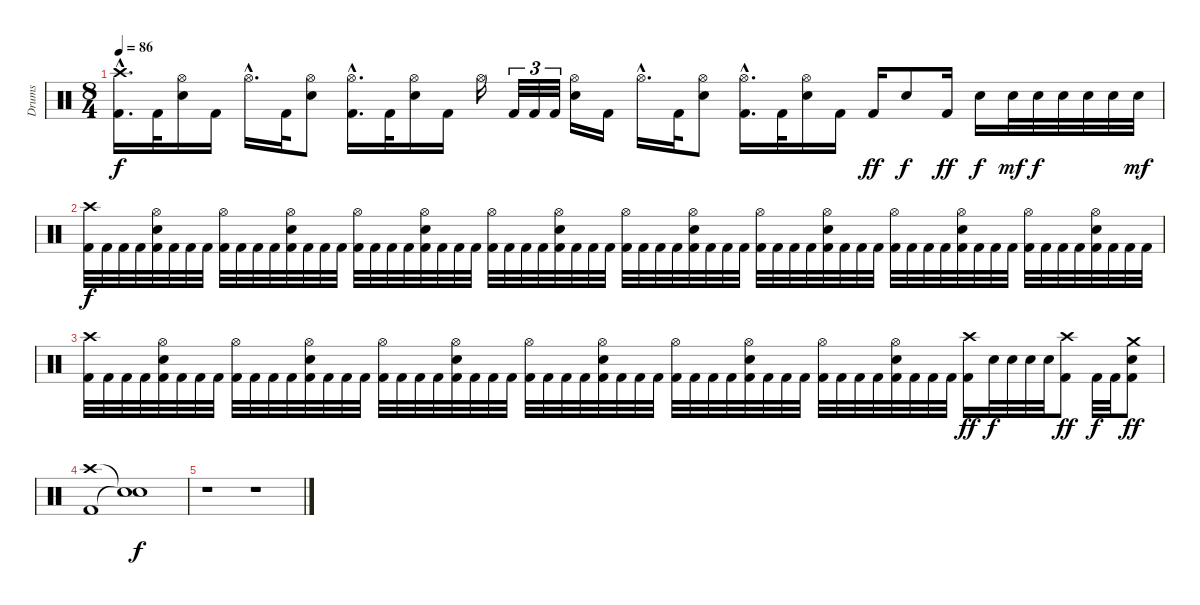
\track ("Drums" "Drums") {instrument percussion}
\staff {score}
\articulation defaults
\ts (8 4)
\tempo 86
\clef neutral
\ks c
("Crash high (hit)"{hac} "Kick (hit) 2"{hac}).16{d dy f} "Kick (hit) 2".32 ("Hi-Hat (open)" "Electric Snare (hit)").16 "Kick (hit) 2".16 "Hi-Hat (open)"{hac}.16{d} "Kick (hit) 2".32 ("Hi-Hat (open)" "Electric Snare (hit)").8 ("Hi-Hat (open)"{hac} "Kick (hit) 2"{hac}).16{d} "Kick (hit) 2".32 ("Hi-Hat (open)" "Electric Snare (hit)").16 "Kick (hit) 2".16 "Hi-Hat (open)".16 "Kick (hit) 2".32{tu (3 2)} "Kick (hit) 2".32{tu (3 2)} "Kick (hit) 2".32{tu (3 2)} ("Hi-Hat (open)" "Electric Snare (hit)").16 "Kick (hit) 2".16 "Hi-Hat (open)"{hac}.16{d} "Kick (hit) 2".32 ("Hi-Hat (open)" "Electric Snare (hit)").8 ("Hi-Hat (open)"{hac} "Kick (hit) 2"{hac}).16{d} "Kick (hit) 2".32 ("Hi-Hat (open)" "Electric Snare (hit)").16 "Kick (hit) 2".16 "Kick (hit) 2".16{dy ff} "Electric Snare (hit)".8{dy f} "Kick (hit) 2".16{dy ff} "Electric Snare (hit)".16{dy f} "Electric Snare (hit)".32{dy mf} "Electric Snare (hit)".32{dy f} "Electric Snare (hit)".32 "Electric Snare (hit)".32 "Electric Snare (hit)".32 "Electric Snare (hit)".32{dy mf} |
("Crash high (hit)" "Kick (hit) 2").32{dy f} "Kick (hit) 2".32 "Kick (hit) 2".32 "Kick (hit) 2".32 ("Hi-Hat (open)" "Electric Snare (hit)" "Kick (hit) 2").32 "Kick (hit) 2".32 "Kick (hit) 2".32 "Kick (hit) 2".32 ("Hi-Hat (open)" "Kick (hit) 2").32 "Kick (hit) 2".32 "Kick (hit) 2".32 "Kick (hit) 2".32 ("Hi-Hat (open)" "Electric Snare (hit)" "Kick (hit) 2").32 "Kick (hit) 2".32 "Kick (hit) 2".32 "Kick (hit) 2".32 ("Hi-Hat (open)" "Kick (hit) 2").32 "Kick (hit) 2".32 "Kick (hit) 2".32 "Kick (hit) 2".32 ("Hi-Hat (open)" "Electric Snare (hit)" "Kick (hit) 2").32 "Kick (hit) 2".32 "Kick (hit) 2".32 "Kick (hit) 2".32 ("Hi-Hat (open)" "Kick (hit) 2").32 "Kick (hit) 2".32 "Kick (hit) 2".32 "Kick (hit) 2".32 ("Hi-Hat (open)" "Electric Snare (hit)" "Kick (hit) 2").32 "Kick (hit) 2".32 "Kick (hit) 2".32 "Kick (hit) 2".32 ("Hi-Hat (open)" "Kick (hit) 2").32 "Kick (hit) 2".32 "Kick (hit) 2".32 "Kick (hit) 2".32 ("Hi-Hat (open)" "Electric Snare (hit)" "Kick (hit) 2").32 "Kick (hit) 2".32 "Kick (hit) 2".32 "Kick (hit) 2".32 ("Hi-Hat (open)" "Kick (hit) 2").32 "Kick (hit) 2".32 "Kick (hit) 2".32 "Kick (hit) 2".32 ("Hi-Hat (open)" "Electric Snare (hit)" "Kick (hit) 2").32 "Kick (hit) 2".32 "Kick (hit) 2".32 "Kick (hit) 2".32 ("Hi-Hat (open)" "Kick (hit) 2").32 "Kick (hit) 2".32 "Kick (hit) 2".32 "Kick (hit) 2".32 ("Hi-Hat (open)" "Electric Snare (hit)" "Kick (hit) 2").32 "Kick (hit) 2".32 "Kick (hit) 2".32 "Kick (hit) 2".32 ("Hi-Hat (open)" "Kick (hit) 2").32 "Kick (hit) 2".32 "Kick (hit) 2".32 "Kick (hit) 2".32 ("Hi-Hat (open)" "Electric Snare (hit)" "Kick (hit) 2").32 "Kick (hit) 2".32 "Kick (hit) 2".32 "Kick (hit) 2".32 |
("Crash high (hit)" "Kick (hit) 2").32 "Kick (hit) 2".32 "Kick (hit) 2".32 "Kick (hit) 2".32 ("Hi-Hat (open)" "Electric Snare (hit)" "Kick (hit) 2").32 "Kick (hit) 2".32 "Kick (hit) 2".32 "Kick (hit) 2".32 ("Hi-Hat (open)" "Kick (hit) 2").32 "Kick (hit) 2".32 "Kick (hit) 2".32 "Kick (hit) 2".32 ("Hi-Hat (open)" "Electric Snare (hit)" "Kick (hit) 2").32 "Kick (hit) 2".32 "Kick (hit) 2".32 "Kick (hit) 2".32 ("Hi-Hat (open)" "Kick (hit) 2").32 "Kick (hit) 2".32 "Kick (hit) 2".32 "Kick (hit) 2".32 ("Hi-Hat (open)" "Electric Snare (hit)" "Kick (hit) 2").32 "Kick (hit) 2".32 "Kick (hit) 2".32 "Kick (hit) 2".32 ("Hi-Hat (open)" "Kick (hit) 2").32 "Kick (hit) 2".32 "Kick (hit) 2".32 "Kick (hit) 2".32 ("Hi-Hat (open)" "Electric Snare (hit)" "Kick (hit) 2").32 "Kick (hit) 2".32 "Kick (hit) 2".32 "Kick (hit) 2".32 ("Hi-Hat (open)" "Kick (hit) 2").32 "Kick (hit) 2".32 "Kick (hit) 2".32 "Kick (hit) 2".32 ("Hi-Hat (open)" "Electric Snare (hit)" "Kick (hit) 2").32 "Kick (hit) 2".32 "Kick (hit) 2".32 "Kick (hit) 2".32 ("Hi-Hat (open)" "Kick (hit) 2").32 "Kick (hit) 2".32 "Kick (hit) 2".32 "Kick (hit) 2".32 ("Hi-Hat (open)" "Electric Snare (hit)" "Kick (hit) 2").32 "Kick (hit) 2".32 "Kick (hit) 2".32 "Kick (hit) 2".32 ("Crash high (hit)" "Kick (hit) 2").16{dy ff} "Electric Snare (hit)".32{dy f} "Electric Snare (hit)".32 "Electric Snare (hit)".32 "Electric Snare (hit)".32 ("Crash high (hit)" "Kick (hit) 2").8{dy ff} "Kick (hit) 2".32{dy f} "Kick (hit) 2".32 ("Crash medium (hit)" "Electric Snare (hit)" "Kick (hit) 2").8{dy ff} |
("Crash high (hit)" "Kick (hit) 2").1 ("Snare (hit)"{t} "Snare (hit)"{t}).1{dy f} |
r.1 r.1
